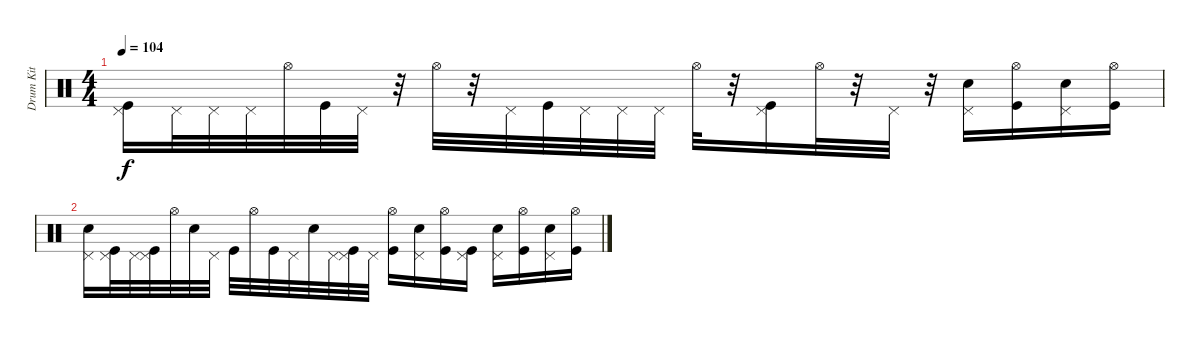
\track ("Drum Kit" "Drum Kit") {instrument percussion}
\staff {score}
\articulation defaults
\ts (4 4)
\tempo 104
\clef neutral
\ks c
("Kick (hit)" "Pedal Hi-Hat (hit)").16{dy f} "Pedal Hi-Hat (hit)".32 "Pedal Hi-Hat (hit)".32 "Pedal Hi-Hat (hit)".32 "Hi-Hat (open)".32 "Kick (hit)".32 "Pedal Hi-Hat (hit)".32 r.32 "Hi-Hat (open)".32 r.32 "Pedal Hi-Hat (hit)".32 "Kick (hit)".32 "Pedal Hi-Hat (hit)".32 "Pedal Hi-Hat (hit)".32 "Pedal Hi-Hat (hit)".32 "Hi-Hat (open)".32 r.32 ("Pedal Hi-Hat (hit)" "Kick (hit)").16 "Hi-Hat (open)".32 r.32 "Pedal Hi-Hat (hit)".32 r.32 ("Pedal Hi-Hat (hit)" "Electric Snare (hit)").16 ("Hi-Hat (open)" "Kick (hit)").16 ("Pedal Hi-Hat (hit)" "Electric Snare (hit)").16 ("Hi-Hat (open)" "Kick (hit)").16 |
("Electric Snare (hit)" "Pedal Hi-Hat (hit)").16 ("Kick (hit)" "Pedal Hi-Hat (hit)").32 "Pedal Hi-Hat (hit)".32 ("Kick (hit)" "Pedal Hi-Hat (hit)").32 "Hi-Hat (open)".32 "Electric Snare (hit)".32 "Pedal Hi-Hat (hit)".32 "Kick (hit)".32 "Hi-Hat (open)".32 "Kick (hit)".32 "Pedal Hi-Hat (hit)".32 "Electric Snare (hit)".32 "Pedal Hi-Hat (hit)".32 ("Kick (hit)" "Pedal Hi-Hat (hit)").32 "Pedal Hi-Hat (hit)".32 ("Kick (hit)" "Hi-Hat (open)").16 ("Pedal Hi-Hat (hit)" "Electric Snare (hit)").16 ("Kick (hit)" "Hi-Hat (open)").16 ("Kick (hit)" "Pedal Hi-Hat (hit)").16 ("Pedal Hi-Hat (hit)" "Electric Snare (hit)").16 ("Hi-Hat (open)" "Kick (hit)").16 ("Pedal Hi-Hat (hit)" "Electric Snare (hit)").16 ("Hi-Hat (open)" "Kick (hit)").16
